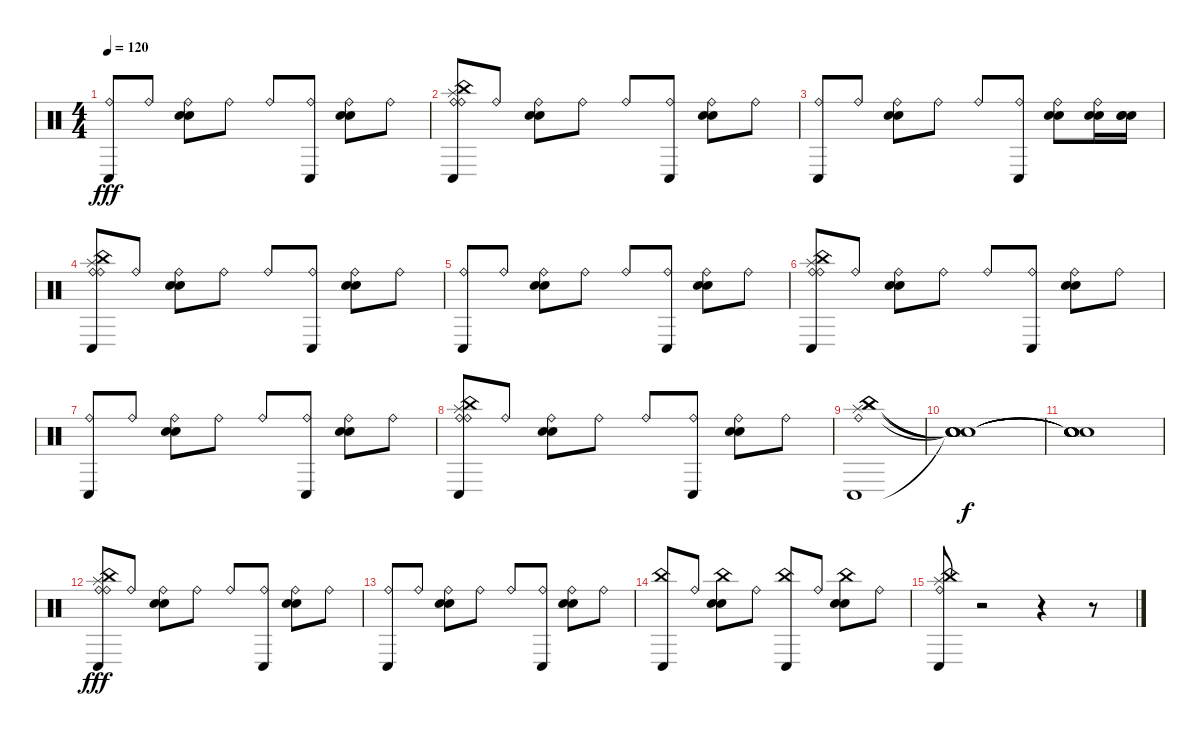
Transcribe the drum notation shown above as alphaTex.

\track "" {instrument percussion}
\staff {score}
\articulation defaults
\ts (4 4)
\tempo 120
\clef neutral
\ks c
("Conga low (hit)" "Ride (bell)").8{dy fff} "Ride (bell)".8 ("Electric Snare (hit)" "Snare (hit) 2" "Ride (bell)").8 "Ride (bell)".8 "Ride (bell)".8 ("Conga low (hit)" "Ride (bell)").8 ("Electric Snare (hit)" "Snare (hit) 2" "Ride (bell)").8 "Ride (bell)".8 |
("Conga low (hit)" "Splash (hit)" "Ride (bell)" "China (hit)" "Ride (bell)").8 "Ride (bell)".8 ("Electric Snare (hit)" "Snare (hit) 2" "Ride (bell)").8 "Ride (bell)".8 "Ride (bell)".8 ("Conga low (hit)" "Ride (bell)").8 ("Electric Snare (hit)" "Snare (hit) 2" "Ride (bell)").8 "Ride (bell)".8 |
("Conga low (hit)" "Ride (bell)").8 "Ride (bell)".8 ("Electric Snare (hit)" "Snare (hit) 2" "Ride (bell)").8 "Ride (bell)".8 "Ride (bell)".8 ("Conga low (hit)" "Ride (bell)").8 ("Electric Snare (hit)" "Snare (hit) 2" "Ride (bell)").8 ("Ride (bell)" "Electric Snare (hit)" "Snare (hit) 2").16 ("Electric Snare (hit)" "Electric Snare (hit)" "Snare (hit) 2").16 |
("Conga low (hit)" "Splash (hit)" "Ride (bell)" "China (hit)" "Ride (bell)").8 "Ride (bell)".8 ("Electric Snare (hit)" "Snare (hit) 2" "Ride (bell)").8 "Ride (bell)".8 "Ride (bell)".8 ("Conga low (hit)" "Ride (bell)").8 ("Electric Snare (hit)" "Snare (hit) 2" "Ride (bell)").8 "Ride (bell)".8 |
("Conga low (hit)" "Ride (bell)").8 "Ride (bell)".8 ("Electric Snare (hit)" "Snare (hit) 2" "Ride (bell)").8 "Ride (bell)".8 "Ride (bell)".8 ("Conga low (hit)" "Ride (bell)").8 ("Electric Snare (hit)" "Snare (hit) 2" "Ride (bell)").8 "Ride (bell)".8 |
("Conga low (hit)" "Splash (hit)" "Ride (bell)" "China (hit)" "Ride (bell)").8 "Ride (bell)".8 ("Electric Snare (hit)" "Snare (hit) 2" "Ride (bell)").8 "Ride (bell)".8 "Ride (bell)".8 ("Conga low (hit)" "Ride (bell)").8 ("Electric Snare (hit)" "Snare (hit) 2" "Ride (bell)").8 "Ride (bell)".8 |
("Conga low (hit)" "Ride (bell)").8 "Ride (bell)".8 ("Electric Snare (hit)" "Snare (hit) 2" "Ride (bell)").8 "Ride (bell)".8 "Ride (bell)".8 ("Conga low (hit)" "Ride (bell)").8 ("Electric Snare (hit)" "Snare (hit) 2" "Ride (bell)").8 "Ride (bell)".8 |
("Conga low (hit)" "Splash (hit)" "Ride (bell)" "China (hit)" "Ride (bell)").8 "Ride (bell)".8 ("Electric Snare (hit)" "Snare (hit) 2" "Ride (bell)").8 "Ride (bell)".8 "Ride (bell)".8 ("Conga low (hit)" "Ride (bell)").8 ("Electric Snare (hit)" "Snare (hit) 2" "Ride (bell)").8 "Ride (bell)".8 |
("China (hit)" "Ride (bell)" "Conga low (hit)" "Splash (hit)" "China (hit)").1 |
("Snare (hit)"{t} "Snare (hit)"{t} "Snare (hit)"{t} "Snare (hit)"{t} "Snare (hit)"{t}).1{dy f} |
("Snare (hit)"{t} "Snare (hit)"{t} "Snare (hit)"{t} "Snare (hit)"{t} "Snare (hit)"{t}).1 |
("Conga low (hit)" "Splash (hit)" "Ride (bell)" "China (hit)" "Ride (bell)").8{dy fff} "Ride (bell)".8 ("Electric Snare (hit)" "Snare (hit) 2" "Ride (bell)").8 "Ride (bell)".8 "Ride (bell)".8 ("Conga low (hit)" "Ride (bell)").8 ("Electric Snare (hit)" "Snare (hit) 2" "Ride (bell)").8 "Ride (bell)".8 |
("Conga low (hit)" "Ride (bell)").8 "Ride (bell)".8 ("Electric Snare (hit)" "Snare (hit) 2" "Ride (bell)").8 "Ride (bell)".8 "Ride (bell)".8 ("Conga low (hit)" "Ride (bell)").8 ("Electric Snare (hit)" "Snare (hit) 2" "Ride (bell)").8 "Ride (bell)".8 |
("China (hit)" "Conga low (hit)").8 "Ride (bell)".8 ("China (hit)" "Electric Snare (hit)" "Snare (hit) 2").8 "Ride (bell)".8 ("China (hit)" "Conga low (hit)").8 "Ride (bell)".8 ("China (hit)" "Electric Snare (hit)" "Snare (hit) 2").8 "Ride (bell)".8 |
("China (hit)" "Splash (hit)" "Ride (bell)" "Conga low (hit)").8 r.2 r.4 r.8
